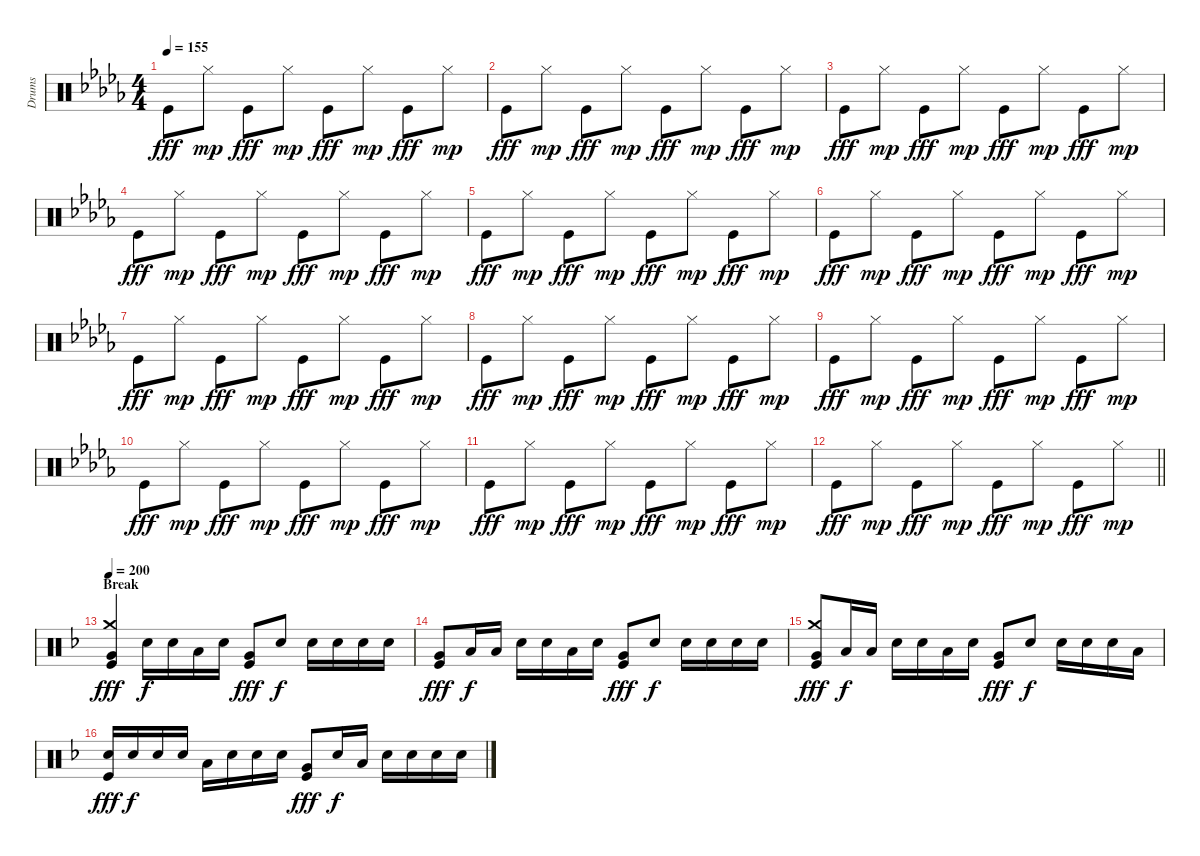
\track ("Drums" "Drums") {instrument percussion bank 25}
\staff {score}
\articulation defaults
\ts (4 4)
\tempo 155
\clef neutral
\ks bbminor "Kick (hit)".8{dy fff} "Hi-Hat (closed)".8{dy mp} "Kick (hit)".8{dy fff} "Hi-Hat (closed)".8{dy mp} "Kick (hit)".8{dy fff} "Hi-Hat (closed)".8{dy mp} "Kick (hit)".8{dy fff} "Hi-Hat (closed)".8{dy mp}
|
"Kick (hit)".8{dy fff} "Hi-Hat (closed)".8{dy mp} "Kick (hit)".8{dy fff} "Hi-Hat (closed)".8{dy mp} "Kick (hit)".8{dy fff} "Hi-Hat (closed)".8{dy mp} "Kick (hit)".8{dy fff} "Hi-Hat (closed)".8{dy mp} |
"Kick (hit)".8{dy fff} "Hi-Hat (closed)".8{dy mp} "Kick (hit)".8{dy fff} "Hi-Hat (closed)".8{dy mp} "Kick (hit)".8{dy fff} "Hi-Hat (closed)".8{dy mp} "Kick (hit)".8{dy fff} "Hi-Hat (closed)".8{dy mp} |
"Kick (hit)".8{dy fff} "Hi-Hat (closed)".8{dy mp} "Kick (hit)".8{dy fff} "Hi-Hat (closed)".8{dy mp} "Kick (hit)".8{dy fff} "Hi-Hat (closed)".8{dy mp} "Kick (hit)".8{dy fff} "Hi-Hat (closed)".8{dy mp} |
"Kick (hit)".8{dy fff} "Hi-Hat (closed)".8{dy mp} "Kick (hit)".8{dy fff} "Hi-Hat (closed)".8{dy mp} "Kick (hit)".8{dy fff} "Hi-Hat (closed)".8{dy mp} "Kick (hit)".8{dy fff} "Hi-Hat (closed)".8{dy mp} |
"Kick (hit)".8{dy fff} "Hi-Hat (closed)".8{dy mp} "Kick (hit)".8{dy fff} "Hi-Hat (closed)".8{dy mp} "Kick (hit)".8{dy fff} "Hi-Hat (closed)".8{dy mp} "Kick (hit)".8{dy fff} "Hi-Hat (closed)".8{dy mp} |
"Kick (hit)".8{dy fff} "Hi-Hat (closed)".8{dy mp} "Kick (hit)".8{dy fff} "Hi-Hat (closed)".8{dy mp} "Kick (hit)".8{dy fff} "Hi-Hat (closed)".8{dy mp} "Kick (hit)".8{dy fff} "Hi-Hat (closed)".8{dy mp} |
"Kick (hit)".8{dy fff} "Hi-Hat (closed)".8{dy mp} "Kick (hit)".8{dy fff} "Hi-Hat (closed)".8{dy mp} "Kick (hit)".8{dy fff} "Hi-Hat (closed)".8{dy mp} "Kick (hit)".8{dy fff} "Hi-Hat (closed)".8{dy mp} |
"Kick (hit)".8{dy fff} "Hi-Hat (closed)".8{dy mp} "Kick (hit)".8{dy fff} "Hi-Hat (closed)".8{dy mp} "Kick (hit)".8{dy fff} "Hi-Hat (closed)".8{dy mp} "Kick (hit)".8{dy fff} "Hi-Hat (closed)".8{dy mp} |
"Kick (hit)".8{dy fff} "Hi-Hat (closed)".8{dy mp} "Kick (hit)".8{dy fff} "Hi-Hat (closed)".8{dy mp} "Kick (hit)".8{dy fff} "Hi-Hat (closed)".8{dy mp} "Kick (hit)".8{dy fff} "Hi-Hat (closed)".8{dy mp} |
"Kick (hit)".8{dy fff} "Hi-Hat (closed)".8{dy mp} "Kick (hit)".8{dy fff} "Hi-Hat (closed)".8{dy mp} "Kick (hit)".8{dy fff} "Hi-Hat (closed)".8{dy mp} "Kick (hit)".8{dy fff} "Hi-Hat (closed)".8{dy mp} |
\barLineRight lightlight "Kick (hit)".8{dy fff} "Hi-Hat (closed)".8{dy mp} "Kick (hit)".8{dy fff} "Hi-Hat (closed)".8{dy mp} "Kick (hit)".8{dy fff} "Hi-Hat (closed)".8{dy mp} "Kick (hit)".8{dy fff} "Hi-Hat (closed)".8{dy mp}
|
\section ("" "Break")
\tempo 200
\ks dminor
("Crash medium (hit)" "Very Low Tom (hit)" "Kick (hit)").4{dy fff} "Electric Snare (hit)".16{dy f} "Electric Snare (hit)".16 "Low Tom (hit)".16 "Electric Snare (hit)".16 ("Very Low Tom (hit)" "Kick (hit)").8{dy fff} "Electric Snare (hit)".8{dy f} "Electric Snare (hit)".16 "Electric Snare (hit)".16 "Electric Snare (hit)".16 "Electric Snare (hit)".16 |
("Very Low Tom (hit)" "Kick (hit)").8{dy fff} "Low Tom (hit)".16{dy f} "Low Tom (hit)".16 "Electric Snare (hit)".16 "Electric Snare (hit)".16 "Low Tom (hit)".16 "Electric Snare (hit)".16 ("Very Low Tom (hit)" "Kick (hit)").8{dy fff} "Electric Snare (hit)".8{dy f} "Electric Snare (hit)".16 "Electric Snare (hit)".16 "Electric Snare (hit)".16 "Electric Snare (hit)".16 |
("Crash medium (hit)" "Very Low Tom (hit)" "Kick (hit)").8{dy fff} "Low Tom (hit)".16{dy f} "Low Tom (hit)".16 "Electric Snare (hit)".16 "Electric Snare (hit)".16 "Low Tom (hit)".16 "Electric Snare (hit)".16 ("Very Low Tom (hit)" "Kick (hit)").8{dy fff} "Electric Snare (hit)".8{dy f} "Electric Snare (hit)".16 "Electric Snare (hit)".16 "Electric Snare (hit)".16 "Low Tom (hit)".16 |
("Electric Snare (hit)" "Kick (hit)").16{dy fff} "Electric Snare (hit)".16{dy f} "Electric Snare (hit)".16 "Electric Snare (hit)".16 "Low Tom (hit)".16 "Electric Snare (hit)".16 "Electric Snare (hit)".16 "Electric Snare (hit)".16 ("Very Low Tom (hit)" "Kick (hit)").8{dy fff} "Electric Snare (hit)".16{dy f} "Low Tom (hit)".16 "Electric Snare (hit)".16 "Electric Snare (hit)".16 "Electric Snare (hit)".16 "Electric Snare (hit)".16
